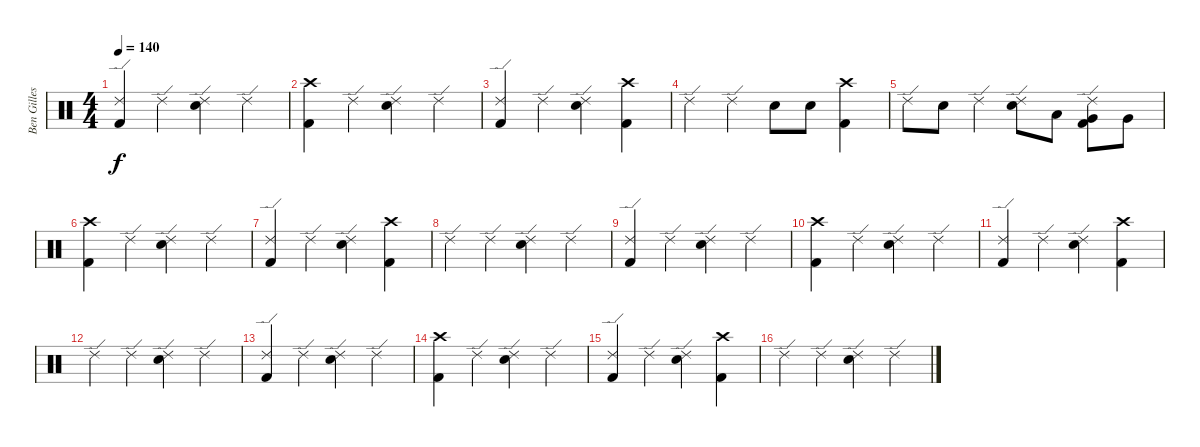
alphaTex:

\track ("Ben Gilles" "Ben Gilles") {instrument percussion}
\staff {score}
\articulation defaults
\ts (4 4)
\tempo 140
\clef neutral
\ks c
("Ride (edge) 2" "Kick (hit) 2").4{dy f} "Ride (edge) 2".4 ("Ride (edge) 2" "Electric Snare (hit)").4 "Ride (edge) 2".4 |
("Crash high (hit)" "Kick (hit) 2").4 "Ride (edge) 2".4 ("Ride (edge) 2" "Electric Snare (hit)").4 "Ride (edge) 2".4 |
("Ride (edge) 2" "Kick (hit) 2").4 "Ride (edge) 2".4 ("Ride (edge) 2" "Electric Snare (hit)").4 ("Crash high (hit)" "Kick (hit) 2").4 |
"Ride (edge) 2".4 "Ride (edge) 2".4 "Electric Snare (hit)".8 "Electric Snare (hit)".8 ("Crash high (hit)" "Kick (hit) 2").4 |
"Ride (edge) 2".8 "Electric Snare (hit)".8 "Ride (edge) 2".4 ("Ride (edge) 2" "Electric Snare (hit)").8 "Low Tom (hit)".8 ("Ride (edge) 2" "Very Low Tom (hit)" "Kick (hit) 2").8 "Very Low Tom (hit)".8 |
("Crash high (hit)" "Kick (hit) 2").4 "Ride (edge) 2".4 ("Ride (edge) 2" "Electric Snare (hit)").4 "Ride (edge) 2".4 |
("Ride (edge) 2" "Kick (hit) 2").4 "Ride (edge) 2".4 ("Ride (edge) 2" "Electric Snare (hit)").4 ("Crash high (hit)" "Kick (hit) 2").4 |
"Ride (edge) 2".4 "Ride (edge) 2".4 ("Ride (edge) 2" "Electric Snare (hit)").4 "Ride (edge) 2".4 |
("Ride (edge) 2" "Kick (hit) 2").4 "Ride (edge) 2".4 ("Ride (edge) 2" "Electric Snare (hit)").4 "Ride (edge) 2".4 |
("Crash high (hit)" "Kick (hit) 2").4 "Ride (edge) 2".4 ("Ride (edge) 2" "Electric Snare (hit)").4 "Ride (edge) 2".4 |
("Ride (edge) 2" "Kick (hit) 2").4 "Ride (edge) 2".4 ("Ride (edge) 2" "Electric Snare (hit)").4 ("Crash high (hit)" "Kick (hit) 2").4 |
"Ride (edge) 2".4 "Ride (edge) 2".4 ("Ride (edge) 2" "Electric Snare (hit)").4 "Ride (edge) 2".4 |
("Ride (edge) 2" "Kick (hit) 2").4 "Ride (edge) 2".4 ("Ride (edge) 2" "Electric Snare (hit)").4 "Ride (edge) 2".4 |
("Crash high (hit)" "Kick (hit) 2").4 "Ride (edge) 2".4 ("Ride (edge) 2" "Electric Snare (hit)").4 "Ride (edge) 2".4 |
("Ride (edge) 2" "Kick (hit) 2").4 "Ride (edge) 2".4 ("Ride (edge) 2" "Electric Snare (hit)").4 ("Crash high (hit)" "Kick (hit) 2").4 |
"Ride (edge) 2".4 "Ride (edge) 2".4 ("Ride (edge) 2" "Electric Snare (hit)").4 "Ride (edge) 2".4
